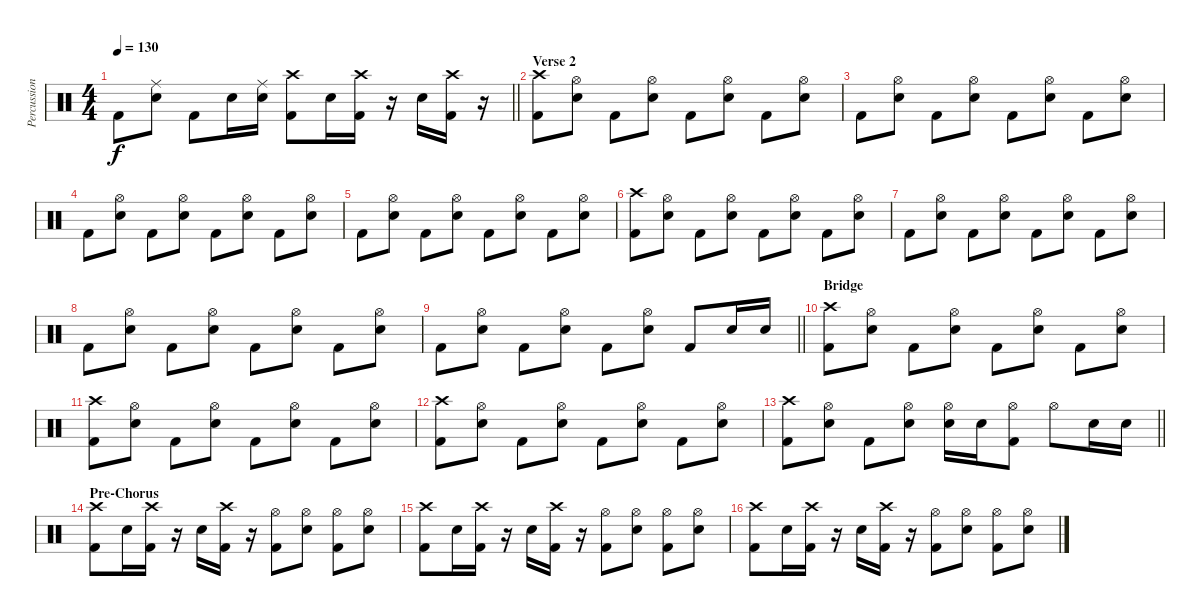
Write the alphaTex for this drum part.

\track ("Percussion" "Percussion") {instrument percussion}
\staff {score}
\articulation defaults
\ts (4 4)
\tempo 130
\clef neutral
\barLineRight lightlight
\ks c "Kick (hit) 2".8{dy f}
("Ride (middle)" "Snare (hit) 2").8 "Kick (hit) 2".8 "Snare (hit) 2".16 ("Ride (middle)" "Snare (hit) 2").16 ("Crash high (hit)" "Kick (hit) 2").8 "Snare (hit) 2".16 ("Crash high (hit)" "Kick (hit) 2").16 r.16 "Snare (hit) 2".16 ("Crash high (hit)" "Kick (hit) 2").16 r.16 |
\section ("" "Verse 2")
("Crash high (hit)" "Kick (hit) 2").8 ("Hi-Hat (open)" "Snare (hit) 2").8 "Kick (hit) 2".8 ("Hi-Hat (open)" "Snare (hit) 2").8 "Kick (hit) 2".8 ("Hi-Hat (open)" "Snare (hit) 2").8 "Kick (hit) 2".8 ("Hi-Hat (open)" "Snare (hit) 2").8 |
"Kick (hit) 2".8 ("Hi-Hat (open)" "Snare (hit) 2").8 "Kick (hit) 2".8 ("Hi-Hat (open)" "Snare (hit) 2").8 "Kick (hit) 2".8 ("Hi-Hat (open)" "Snare (hit) 2").8 "Kick (hit) 2".8 ("Hi-Hat (open)" "Snare (hit) 2").8 |
"Kick (hit) 2".8 ("Hi-Hat (open)" "Snare (hit) 2").8 "Kick (hit) 2".8 ("Hi-Hat (open)" "Snare (hit) 2").8 "Kick (hit) 2".8 ("Hi-Hat (open)" "Snare (hit) 2").8 "Kick (hit) 2".8 ("Hi-Hat (open)" "Snare (hit) 2").8 |
"Kick (hit) 2".8 ("Hi-Hat (open)" "Snare (hit) 2").8 "Kick (hit) 2".8 ("Hi-Hat (open)" "Snare (hit) 2").8 "Kick (hit) 2".8 ("Hi-Hat (open)" "Snare (hit) 2").8 "Kick (hit) 2".8 ("Hi-Hat (open)" "Snare (hit) 2").8 |
("Crash high (hit)" "Kick (hit) 2").8 ("Hi-Hat (open)" "Snare (hit) 2").8 "Kick (hit) 2".8 ("Hi-Hat (open)" "Snare (hit) 2").8 "Kick (hit) 2".8 ("Hi-Hat (open)" "Snare (hit) 2").8 "Kick (hit) 2".8 ("Hi-Hat (open)" "Snare (hit) 2").8 |
"Kick (hit) 2".8 ("Hi-Hat (open)" "Snare (hit) 2").8 "Kick (hit) 2".8 ("Hi-Hat (open)" "Snare (hit) 2").8 "Kick (hit) 2".8 ("Hi-Hat (open)" "Snare (hit) 2").8 "Kick (hit) 2".8 ("Hi-Hat (open)" "Snare (hit) 2").8 |
"Kick (hit) 2".8 ("Hi-Hat (open)" "Snare (hit) 2").8 "Kick (hit) 2".8 ("Hi-Hat (open)" "Snare (hit) 2").8 "Kick (hit) 2".8 ("Hi-Hat (open)" "Snare (hit) 2").8 "Kick (hit) 2".8 ("Hi-Hat (open)" "Snare (hit) 2").8 |
\barLineRight lightlight "Kick (hit) 2".8
("Hi-Hat (open)" "Snare (hit) 2").8 "Kick (hit) 2".8 ("Hi-Hat (open)" "Snare (hit) 2").8 "Kick (hit) 2".8 ("Hi-Hat (open)" "Snare (hit) 2").8 "Kick (hit) 2".8 "Snare (hit) 2".16 "Snare (hit) 2".16 |
\section ("" "Bridge")
("Crash high (hit)" "Kick (hit) 2").8 ("Hi-Hat (open)" "Snare (hit) 2").8 "Kick (hit) 2".8 ("Hi-Hat (open)" "Snare (hit) 2").8 "Kick (hit) 2".8 ("Hi-Hat (open)" "Snare (hit) 2").8 "Kick (hit) 2".8 ("Hi-Hat (open)" "Snare (hit) 2").8 |
("Crash high (hit)" "Kick (hit) 2").8 ("Hi-Hat (open)" "Snare (hit) 2").8 "Kick (hit) 2".8 ("Hi-Hat (open)" "Snare (hit) 2").8 "Kick (hit) 2".8 ("Hi-Hat (open)" "Snare (hit) 2").8 "Kick (hit) 2".8 ("Hi-Hat (open)" "Snare (hit) 2").8 |
("Crash high (hit)" "Kick (hit) 2").8 ("Hi-Hat (open)" "Snare (hit) 2").8 "Kick (hit) 2".8 ("Hi-Hat (open)" "Snare (hit) 2").8 "Kick (hit) 2".8 ("Hi-Hat (open)" "Snare (hit) 2").8 "Kick (hit) 2".8 ("Hi-Hat (open)" "Snare (hit) 2").8 |
\barLineRight lightlight
("Crash high (hit)" "Kick (hit) 2").8 ("Hi-Hat (open)" "Snare (hit) 2").8 "Kick (hit) 2".8 ("Hi-Hat (open)" "Snare (hit) 2").8 ("Hi-Hat (open)" "Snare (hit) 2").16 "Snare (hit) 2".16 ("Hi-Hat (open)" "Kick (hit) 2").8 "Hi-Hat (open)".8 "Snare (hit) 2".16 "Snare (hit) 2".16 |
\section ("" "Pre-Chorus")
("Crash high (hit)" "Kick (hit) 2").8 "Snare (hit) 2".16 ("Crash high (hit)" "Kick (hit) 2").16 r.16 "Snare (hit) 2".16 ("Crash high (hit)" "Kick (hit) 2").16 r.16 ("Hi-Hat (open)" "Kick (hit) 2").8 ("Hi-Hat (open)" "Snare (hit) 2").8 ("Hi-Hat (open)" "Kick (hit) 2").8 ("Hi-Hat (open)" "Snare (hit) 2").8 |
("Crash high (hit)" "Kick (hit) 2").8 "Snare (hit) 2".16 ("Crash high (hit)" "Kick (hit) 2").16 r.16 "Snare (hit) 2".16 ("Crash high (hit)" "Kick (hit) 2").16 r.16 ("Hi-Hat (open)" "Kick (hit) 2").8 ("Hi-Hat (open)" "Snare (hit) 2").8 ("Hi-Hat (open)" "Kick (hit) 2").8 ("Hi-Hat (open)" "Snare (hit) 2").8 |
("Crash high (hit)" "Kick (hit) 2").8 "Snare (hit) 2".16 ("Crash high (hit)" "Kick (hit) 2").16 r.16 "Snare (hit) 2".16 ("Crash high (hit)" "Kick (hit) 2").16 r.16 ("Hi-Hat (open)" "Kick (hit) 2").8 ("Hi-Hat (open)" "Snare (hit) 2").8 ("Hi-Hat (open)" "Kick (hit) 2").8 ("Hi-Hat (open)" "Snare (hit) 2").8
